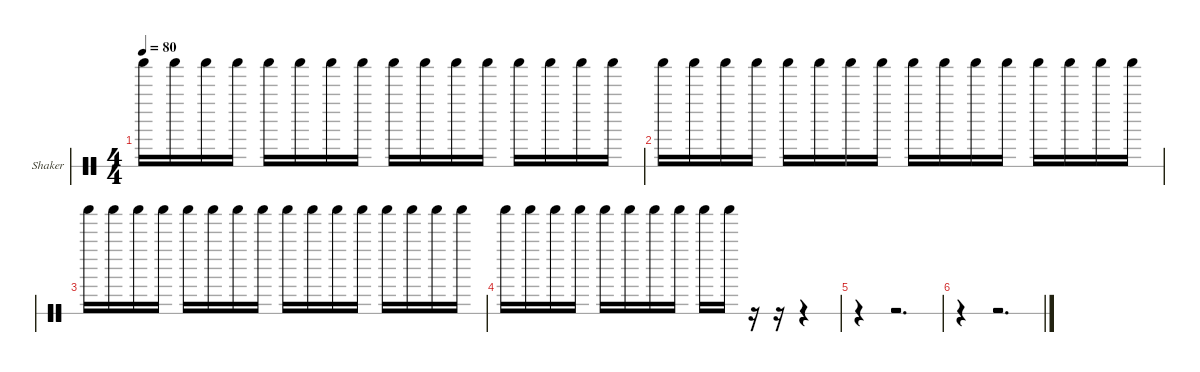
\hideDynamics
\bracketExtendMode nobrackets
\firstSystemTrackNameOrientation horizontal
\otherSystemsTrackNameOrientation horizontal
\track ("Shaker" "Shaker") {instrument percussion}
\staff {score 1}
\articulation defaults
\ts (4 4)
\tempo 80
\clef neutral
\ks c "Shaker (hit)".16{dy f} "Shaker (hit)".16 "Shaker (hit)".16 "Shaker (hit)".16 "Shaker (hit)".16 "Shaker (hit)".16 "Shaker (hit)".16 "Shaker (hit)".16 "Shaker (hit)".16 "Shaker (hit)".16 "Shaker (hit)".16 "Shaker (hit)".16 "Shaker (hit)".16 "Shaker (hit)".16 "Shaker (hit)".16 "Shaker (hit)".16
|
"Shaker (hit)".16 "Shaker (hit)".16 "Shaker (hit)".16 "Shaker (hit)".16 "Shaker (hit)".16 "Shaker (hit)".16 "Shaker (hit)".16 "Shaker (hit)".16 "Shaker (hit)".16 "Shaker (hit)".16 "Shaker (hit)".16 "Shaker (hit)".16 "Shaker (hit)".16 "Shaker (hit)".16 "Shaker (hit)".16 "Shaker (hit)".16 |
"Shaker (hit)".16 "Shaker (hit)".16 "Shaker (hit)".16 "Shaker (hit)".16 "Shaker (hit)".16 "Shaker (hit)".16 "Shaker (hit)".16 "Shaker (hit)".16 "Shaker (hit)".16 "Shaker (hit)".16 "Shaker (hit)".16 "Shaker (hit)".16 "Shaker (hit)".16 "Shaker (hit)".16 "Shaker (hit)".16 "Shaker (hit)".16 |
"Shaker (hit)".16 "Shaker (hit)".16 "Shaker (hit)".16 "Shaker (hit)".16 "Shaker (hit)".16 "Shaker (hit)".16 "Shaker (hit)".16 "Shaker (hit)".16 "Shaker (hit)".16 "Shaker (hit)".16 r.16 r.16 r.4 |
r.4 r.2{d} |
r.4 r.2{d}
